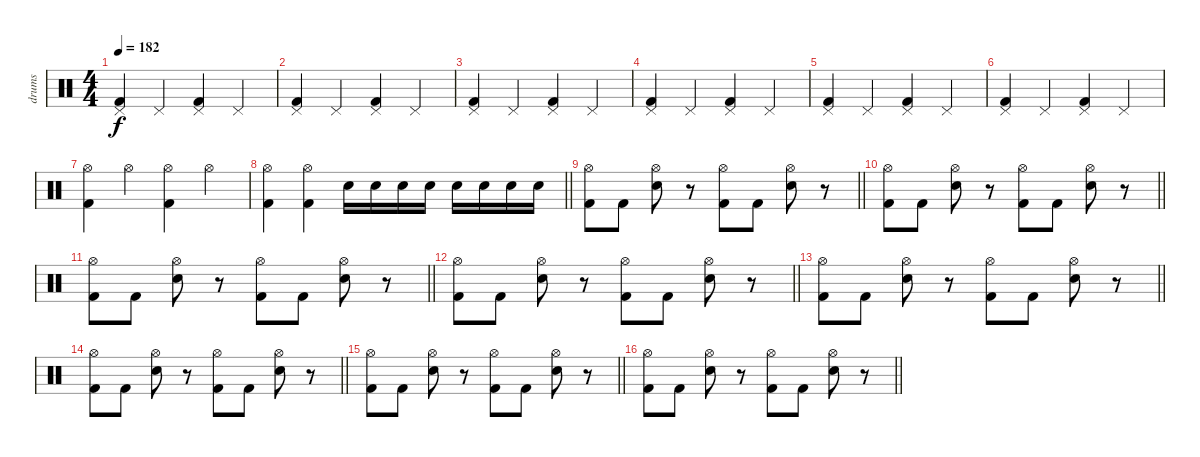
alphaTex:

\track ("drums" "drums") {instrument percussion}
\staff {score}
\articulation defaults
\ts (4 4)
\tempo 182
\clef neutral
\ks c
("Kick (hit) 2" "Pedal Hi-Hat (hit)").4{dy f} "Pedal Hi-Hat (hit)".4 ("Kick (hit) 2" "Pedal Hi-Hat (hit)").4 "Pedal Hi-Hat (hit)".4 |
("Kick (hit) 2" "Pedal Hi-Hat (hit)").4 "Pedal Hi-Hat (hit)".4 ("Kick (hit) 2" "Pedal Hi-Hat (hit)").4 "Pedal Hi-Hat (hit)".4 |
("Kick (hit) 2" "Pedal Hi-Hat (hit)").4 "Pedal Hi-Hat (hit)".4 ("Kick (hit) 2" "Pedal Hi-Hat (hit)").4 "Pedal Hi-Hat (hit)".4 |
("Kick (hit) 2" "Pedal Hi-Hat (hit)").4 "Pedal Hi-Hat (hit)".4 ("Kick (hit) 2" "Pedal Hi-Hat (hit)").4 "Pedal Hi-Hat (hit)".4 |
("Kick (hit) 2" "Pedal Hi-Hat (hit)").4 "Pedal Hi-Hat (hit)".4 ("Kick (hit) 2" "Pedal Hi-Hat (hit)").4 "Pedal Hi-Hat (hit)".4 |
("Kick (hit) 2" "Pedal Hi-Hat (hit)").4 "Pedal Hi-Hat (hit)".4 ("Kick (hit) 2" "Pedal Hi-Hat (hit)").4 "Pedal Hi-Hat (hit)".4 |
("Kick (hit) 2" "Hi-Hat (open)").4 "Hi-Hat (open)".4 ("Kick (hit) 2" "Hi-Hat (open)").4 "Hi-Hat (open)".4 |
\barLineRight lightlight
("Kick (hit) 2" "Hi-Hat (open)").4 ("Kick (hit) 2" "Hi-Hat (open)").4 "Electric Snare (hit)".16 "Electric Snare (hit)".16 "Electric Snare (hit)".16 "Electric Snare (hit)".16 "Electric Snare (hit)".16 "Electric Snare (hit)".16 "Electric Snare (hit)".16 "Electric Snare (hit)".16 |
\barLineRight lightlight
("Kick (hit) 2" "Hi-Hat (open)").8 "Kick (hit) 2".8 ("Electric Snare (hit)" "Hi-Hat (open)").8 r.8 ("Kick (hit) 2" "Hi-Hat (open)").8 "Kick (hit) 2".8 ("Electric Snare (hit)" "Hi-Hat (open)").8 r.8 |
\barLineRight lightlight
("Kick (hit) 2" "Hi-Hat (open)").8 "Kick (hit) 2".8 ("Electric Snare (hit)" "Hi-Hat (open)").8 r.8 ("Kick (hit) 2" "Hi-Hat (open)").8 "Kick (hit) 2".8 ("Electric Snare (hit)" "Hi-Hat (open)").8 r.8 |
\barLineRight lightlight
("Kick (hit) 2" "Hi-Hat (open)").8 "Kick (hit) 2".8 ("Electric Snare (hit)" "Hi-Hat (open)").8 r.8 ("Kick (hit) 2" "Hi-Hat (open)").8 "Kick (hit) 2".8 ("Electric Snare (hit)" "Hi-Hat (open)").8 r.8 |
\barLineRight lightlight
("Kick (hit) 2" "Hi-Hat (open)").8 "Kick (hit) 2".8 ("Electric Snare (hit)" "Hi-Hat (open)").8 r.8 ("Kick (hit) 2" "Hi-Hat (open)").8 "Kick (hit) 2".8 ("Electric Snare (hit)" "Hi-Hat (open)").8 r.8 |
\barLineRight lightlight
("Kick (hit) 2" "Hi-Hat (open)").8 "Kick (hit) 2".8 ("Electric Snare (hit)" "Hi-Hat (open)").8 r.8 ("Kick (hit) 2" "Hi-Hat (open)").8 "Kick (hit) 2".8 ("Electric Snare (hit)" "Hi-Hat (open)").8 r.8 |
\barLineRight lightlight
("Kick (hit) 2" "Hi-Hat (open)").8 "Kick (hit) 2".8 ("Electric Snare (hit)" "Hi-Hat (open)").8 r.8 ("Kick (hit) 2" "Hi-Hat (open)").8 "Kick (hit) 2".8 ("Electric Snare (hit)" "Hi-Hat (open)").8 r.8 |
\barLineRight lightlight
("Kick (hit) 2" "Hi-Hat (open)").8 "Kick (hit) 2".8 ("Electric Snare (hit)" "Hi-Hat (open)").8 r.8 ("Kick (hit) 2" "Hi-Hat (open)").8 "Kick (hit) 2".8 ("Electric Snare (hit)" "Hi-Hat (open)").8 r.8 |
\barLineRight lightlight
("Kick (hit) 2" "Hi-Hat (open)").8 "Kick (hit) 2".8 ("Electric Snare (hit)" "Hi-Hat (open)").8 r.8 ("Kick (hit) 2" "Hi-Hat (open)").8 "Kick (hit) 2".8 ("Electric Snare (hit)" "Hi-Hat (open)").8 r.8
